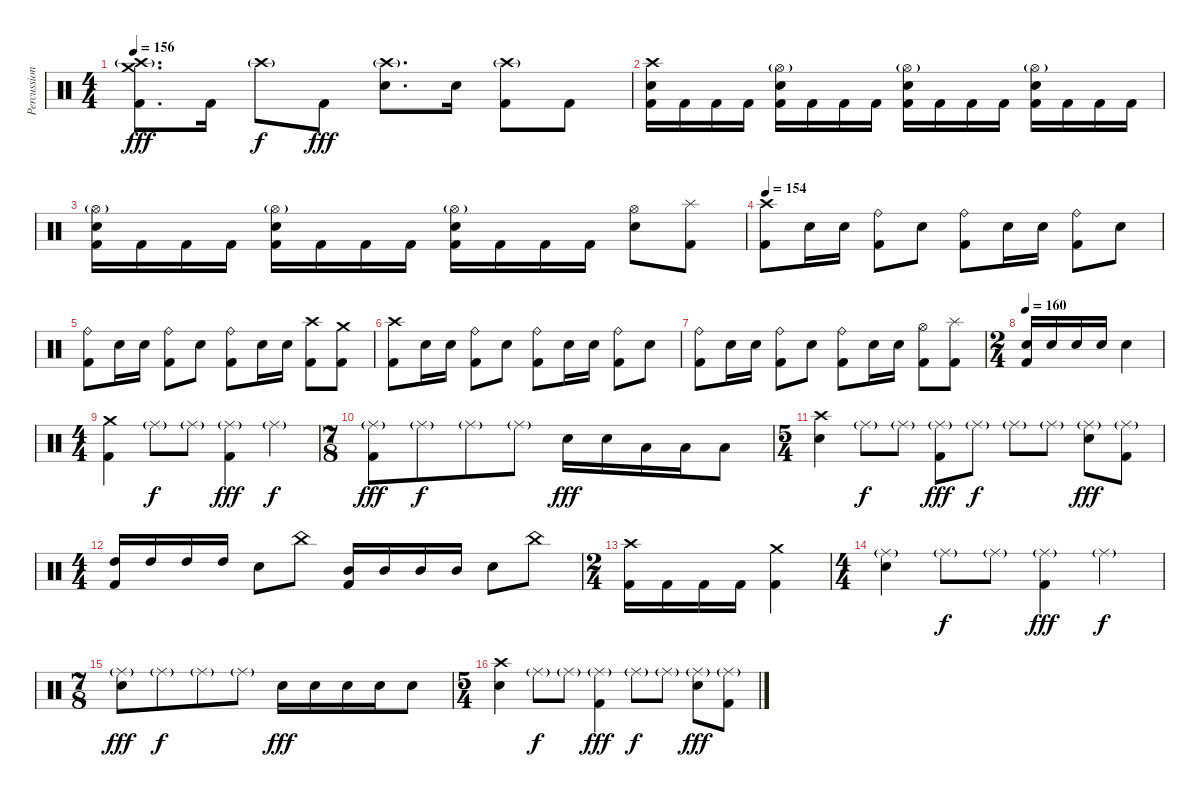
\track ("Percussion" "Percussion") {instrument percussion}
\staff {score}
\articulation defaults
\ts (4 4)
\tempo 156
\clef neutral
\ks c
("Crash high (hit)"{g} "Crash medium (hit)" "Kick (hit) 2").8{d dy fff} "Kick (hit) 2".16 "Crash high (hit)"{g}.8{dy f} "Kick (hit) 2".8{dy fff} ("Crash high (hit)"{g} "Electric Snare (hit)").8{d} "Electric Snare (hit)".16 ("Crash high (hit)"{g} "Kick (hit) 2").8 "Kick (hit) 2".8 |
("Crash high (hit)" "Electric Snare (hit)" "Kick (hit) 2").16 "Kick (hit) 2".16 "Kick (hit) 2".16 "Kick (hit) 2".16 ("Hi-Hat (open)"{g} "Electric Snare (hit)" "Kick (hit) 2").16 "Kick (hit) 2".16 "Kick (hit) 2".16 "Kick (hit) 2".16 ("Hi-Hat (open)"{g} "Electric Snare (hit)" "Kick (hit) 2").16 "Kick (hit) 2".16 "Kick (hit) 2".16 "Kick (hit) 2".16 ("Hi-Hat (open)"{g} "Electric Snare (hit)" "Kick (hit) 2").16 "Kick (hit) 2".16 "Kick (hit) 2".16 "Kick (hit) 2".16 |
("Hi-Hat (open)"{g} "Electric Snare (hit)" "Kick (hit) 2").16 "Kick (hit) 2".16 "Kick (hit) 2".16 "Kick (hit) 2".16 ("Hi-Hat (open)"{g} "Electric Snare (hit)" "Kick (hit) 2").16 "Kick (hit) 2".16 "Kick (hit) 2".16 "Kick (hit) 2".16 ("Hi-Hat (open)"{g} "Electric Snare (hit)" "Kick (hit) 2").16 "Kick (hit) 2".16 "Kick (hit) 2".16 "Kick (hit) 2".16 ("Hi-Hat (open)" "Electric Snare (hit)").8 ("Splash (hit)" "Kick (hit) 2").8 |
\tempo 154
("Crash high (hit)" "Kick (hit) 2").8 "Electric Snare (hit)".16 "Electric Snare (hit)".16 ("Ride (bell)" "Kick (hit) 2").8 "Electric Snare (hit)".8 ("Ride (bell)" "Kick (hit) 2").8 "Electric Snare (hit)".16 "Electric Snare (hit)".16 ("Ride (bell)" "Kick (hit) 2").8 "Electric Snare (hit)".8 |
("Ride (bell)" "Kick (hit) 2").8 "Electric Snare (hit)".16 "Electric Snare (hit)".16 ("Ride (bell)" "Kick (hit) 2").8 "Electric Snare (hit)".8 ("Ride (bell)" "Kick (hit) 2").8 "Electric Snare (hit)".16 "Electric Snare (hit)".16 ("Crash high (hit)" "Kick (hit) 2").8 ("Crash medium (hit)" "Kick (hit) 2").8 |
("Crash high (hit)" "Kick (hit) 2").8 "Electric Snare (hit)".16 "Electric Snare (hit)".16 ("Ride (bell)" "Kick (hit) 2").8 "Electric Snare (hit)".8 ("Ride (bell)" "Kick (hit) 2").8 "Electric Snare (hit)".16 "Electric Snare (hit)".16 ("Ride (bell)" "Kick (hit) 2").8 "Electric Snare (hit)".8 |
("Ride (bell)" "Kick (hit) 2").8 "Electric Snare (hit)".16 "Electric Snare (hit)".16 ("Ride (bell)" "Kick (hit) 2").8 "Electric Snare (hit)".8 ("Ride (bell)" "Kick (hit) 2").8 "Electric Snare (hit)".16 "Electric Snare (hit)".16 ("Hi-Hat (open)" "Kick (hit) 2").8 ("Splash (hit)" "Kick (hit) 2").8 |
\ts (2 4)
\tempo 160
("Electric Snare (hit)" "Kick (hit) 2").16 "Electric Snare (hit)".16 "Electric Snare (hit)".16 "Electric Snare (hit)".16 "Electric Snare (hit)".4 |
\ts (4 4)
("Crash medium (hit)" "Kick (hit) 2").4 "Ride (middle)"{g}.8{dy f} "Ride (middle)"{g}.8 ("Ride (middle)"{g} "Kick (hit) 2").4{dy fff} "Ride (middle)"{g}.4{dy f} |
\ts (7 8)
("Ride (middle)"{g} "Kick (hit) 2").8{dy fff} "Ride (middle)"{g}.8{dy f} "Ride (middle)"{g}.8 "Ride (middle)"{g}.8 "Electric Snare (hit)".16{dy fff} "Electric Snare (hit)".16 "Low Tom (hit)".16 "Low Tom (hit)".16 "Low Tom (hit)".8 |
\ts (5 4)
("Crash high (hit)" "Electric Snare (hit)").4 "Ride (middle)"{g}.8{dy f} "Ride (middle)"{g}.8 ("Ride (middle)"{g} "Kick (hit) 2").8{dy fff} "Ride (middle)"{g}.8{dy f} "Ride (middle)"{g}.8 "Ride (middle)"{g}.8 ("Ride (middle)"{g} "Electric Snare (hit)").8{dy fff} ("Ride (middle)"{g} "Kick (hit) 2").8 |
\ts (4 4)
("High Tom (hit)" "Kick (hit) 2").16 "High Tom (hit)".16 "High Tom (hit)".16 "High Tom (hit)".16 "Electric Snare (hit)".8 "China (hit)".8 ("Mid Tom (hit)" "Kick (hit) 2").16 "Mid Tom (hit)".16 "Mid Tom (hit)".16 "Mid Tom (hit)".16 "Electric Snare (hit)".8 "China (hit)".8 |
\ts (2 4)
("Crash high (hit)" "Kick (hit) 2").16 "Kick (hit) 2".16 "Kick (hit) 2".16 "Kick (hit) 2".16 ("Crash medium (hit)" "Kick (hit) 2").4 |
\ts (4 4)
("Ride (middle)"{g} "Electric Snare (hit)").4 "Ride (middle)"{g}.8{dy f} "Ride (middle)"{g}.8 ("Ride (middle)"{g} "Kick (hit) 2").4{dy fff} "Ride (middle)"{g}.4{dy f} |
\ts (7 8)
("Ride (middle)"{g} "Electric Snare (hit)").8{dy fff} "Ride (middle)"{g}.8{dy f} "Ride (middle)"{g}.8 "Ride (middle)"{g}.8 "Electric Snare (hit)".16{dy fff} "Electric Snare (hit)".16 "Electric Snare (hit)".16 "Electric Snare (hit)".16 "Electric Snare (hit)".8 |
\ts (5 4)
("Crash high (hit)" "Electric Snare (hit)").4 "Ride (middle)"{g}.8{dy f} "Ride (middle)"{g}.8 ("Ride (middle)"{g} "Kick (hit) 2").4{dy fff} "Ride (middle)"{g}.8{dy f} "Ride (middle)"{g}.8 ("Ride (middle)"{g} "Electric Snare (hit)").8{dy fff} ("Ride (middle)"{g} "Kick (hit) 2").8
